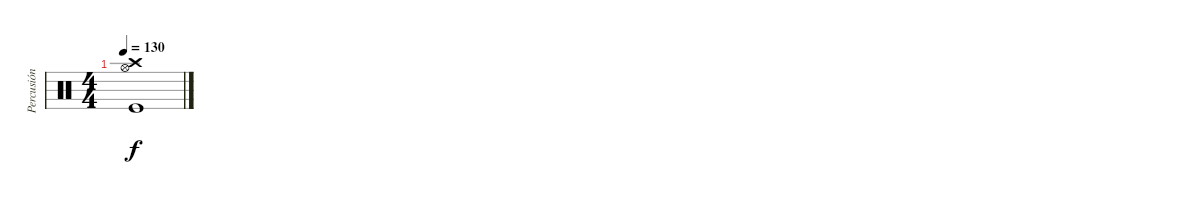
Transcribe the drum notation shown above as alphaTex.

\track ("Percusión" "Percusión") {instrument percussion}
\staff {score}
\articulation defaults
\ts (4 4)
\tempo 130
\clef neutral
\ks c
("Kick (hit)" "Hi-Hat (open)" "Crash high (hit)").1{dy f}
